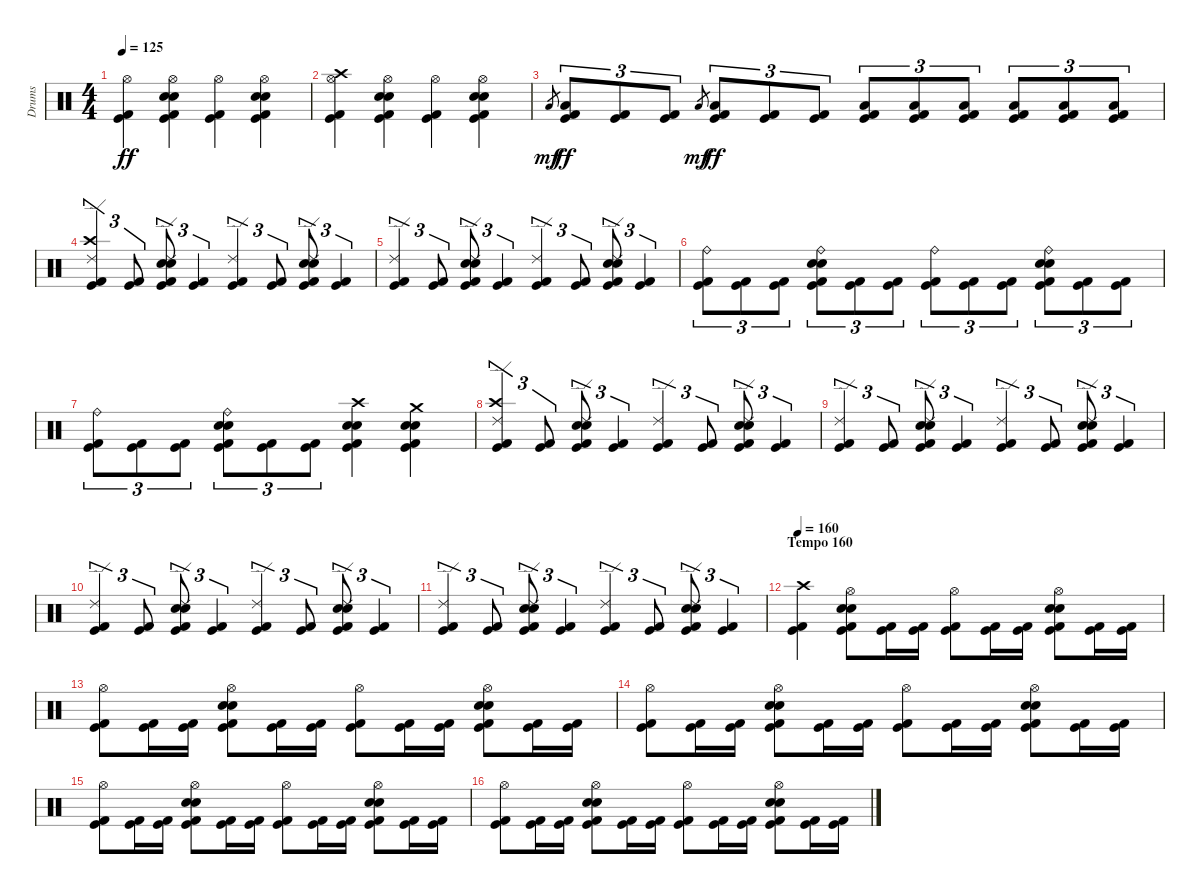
\track ("Drums" "Drums") {instrument percussion}
\staff {score}
\articulation defaults
\ts (4 4)
\tempo 125
\clef neutral
\ks c
("Hi-Hat (open)" "Kick (hit) 2" "Kick (hit)").4{dy ff} ("Hi-Hat (open)" "Snare (hit) 2" "Electric Snare (hit)" "Kick (hit) 2" "Kick (hit)").4 ("Hi-Hat (open)" "Kick (hit) 2" "Kick (hit)").4 ("Hi-Hat (open)" "Snare (hit) 2" "Electric Snare (hit)" "Kick (hit) 2" "Kick (hit)").4 |
("Hi-Hat (open)" "Crash high (hit)" "Kick (hit) 2" "Kick (hit)").4 ("Hi-Hat (open)" "Snare (hit) 2" "Electric Snare (hit)" "Kick (hit) 2" "Kick (hit)").4 ("Hi-Hat (open)" "Kick (hit) 2" "Kick (hit)").4 ("Hi-Hat (open)" "Snare (hit) 2" "Electric Snare (hit)" "Kick (hit) 2" "Kick (hit)").4 |
"Low Tom (hit)".8{gr dy mf} ("Low Tom (hit)" "Kick (hit) 2" "Kick (hit)").8{tu (3 2) dy ff} ("Kick (hit) 2" "Kick (hit)").8{tu (3 2)} ("Kick (hit) 2" "Kick (hit)").8{tu (3 2)} "Low Tom (hit)".8{gr dy mf} ("Low Tom (hit)" "Kick (hit) 2" "Kick (hit)").8{tu (3 2) dy ff} ("Kick (hit) 2" "Kick (hit)").8{tu (3 2)} ("Kick (hit) 2" "Kick (hit)").8{tu (3 2)} ("Low Tom (hit)" "Kick (hit) 2" "Kick (hit)").8{tu (3 2)} ("Low Tom (hit)" "Kick (hit) 2" "Kick (hit)").8{tu (3 2)} ("Low Tom (hit)" "Kick (hit) 2" "Kick (hit)").8{tu (3 2)} ("Low Tom (hit)" "Kick (hit) 2" "Kick (hit)").8{tu (3 2)} ("Low Tom (hit)" "Kick (hit) 2" "Kick (hit)").8{tu (3 2)} ("Low Tom (hit)" "Kick (hit) 2" "Kick (hit)").8{tu (3 2)} |
("Ride (edge) 2" "Crash high (hit)" "Kick (hit) 2" "Kick (hit)").4{tu (3 2)} ("Kick (hit) 2" "Kick (hit)").8{tu (3 2)} ("Ride (edge) 2" "Snare (hit) 2" "Electric Snare (hit)" "Kick (hit) 2" "Kick (hit)").8{tu (3 2)} ("Kick (hit) 2" "Kick (hit)").4{tu (3 2)} ("Ride (edge) 2" "Kick (hit) 2" "Kick (hit)").4{tu (3 2)} ("Kick (hit) 2" "Kick (hit)").8{tu (3 2)} ("Ride (edge) 2" "Snare (hit) 2" "Electric Snare (hit)" "Kick (hit) 2" "Kick (hit)").8{tu (3 2)} ("Kick (hit) 2" "Kick (hit)").4{tu (3 2)} |
("Ride (edge) 2" "Kick (hit) 2" "Kick (hit)").4{tu (3 2)} ("Kick (hit) 2" "Kick (hit)").8{tu (3 2)} ("Ride (edge) 2" "Snare (hit) 2" "Electric Snare (hit)" "Kick (hit) 2" "Kick (hit)").8{tu (3 2)} ("Kick (hit) 2" "Kick (hit)").4{tu (3 2)} ("Ride (edge) 2" "Kick (hit) 2" "Kick (hit)").4{tu (3 2)} ("Kick (hit) 2" "Kick (hit)").8{tu (3 2)} ("Ride (edge) 2" "Snare (hit) 2" "Electric Snare (hit)" "Kick (hit) 2" "Kick (hit)").8{tu (3 2)} ("Kick (hit) 2" "Kick (hit)").4{tu (3 2)} |
("Ride (bell)" "Kick (hit) 2" "Kick (hit)").8{tu (3 2)} ("Kick (hit) 2" "Kick (hit)").8{tu (3 2)} ("Kick (hit) 2" "Kick (hit)").8{tu (3 2)} ("Ride (bell)" "Snare (hit) 2" "Electric Snare (hit)" "Kick (hit) 2" "Kick (hit)").8{tu (3 2)} ("Kick (hit) 2" "Kick (hit)").8{tu (3 2)} ("Kick (hit) 2" "Kick (hit)").8{tu (3 2)} ("Ride (bell)" "Kick (hit) 2" "Kick (hit)").8{tu (3 2)} ("Kick (hit) 2" "Kick (hit)").8{tu (3 2)} ("Kick (hit) 2" "Kick (hit)").8{tu (3 2)} ("Ride (bell)" "Snare (hit) 2" "Electric Snare (hit)" "Kick (hit) 2" "Kick (hit)").8{tu (3 2)} ("Kick (hit) 2" "Kick (hit)").8{tu (3 2)} ("Kick (hit) 2" "Kick (hit)").8{tu (3 2)} |
("Ride (bell)" "Kick (hit) 2" "Kick (hit)").8{tu (3 2)} ("Kick (hit) 2" "Kick (hit)").8{tu (3 2)} ("Kick (hit) 2" "Kick (hit)").8{tu (3 2)} ("Ride (bell)" "Snare (hit) 2" "Electric Snare (hit)" "Kick (hit) 2" "Kick (hit)").8{tu (3 2)} ("Kick (hit) 2" "Kick (hit)").8{tu (3 2)} ("Kick (hit) 2" "Kick (hit)").8{tu (3 2)} ("Crash high (hit)" "Electric Snare (hit)" "Snare (hit) 2" "Kick (hit)" "Kick (hit) 2").4 ("Crash medium (hit)" "Electric Snare (hit)" "Snare (hit) 2" "Kick (hit)" "Kick (hit) 2").4 |
("Ride (edge) 2" "Crash high (hit)" "Kick (hit) 2" "Kick (hit)").4{tu (3 2)} ("Kick (hit) 2" "Kick (hit)").8{tu (3 2)} ("Ride (edge) 2" "Snare (hit) 2" "Electric Snare (hit)" "Kick (hit) 2" "Kick (hit)").8{tu (3 2)} ("Kick (hit) 2" "Kick (hit)").4{tu (3 2)} ("Ride (edge) 2" "Kick (hit) 2" "Kick (hit)").4{tu (3 2)} ("Kick (hit) 2" "Kick (hit)").8{tu (3 2)} ("Ride (edge) 2" "Snare (hit) 2" "Electric Snare (hit)" "Kick (hit) 2" "Kick (hit)").8{tu (3 2)} ("Kick (hit) 2" "Kick (hit)").4{tu (3 2)} |
("Ride (edge) 2" "Kick (hit) 2" "Kick (hit)").4{tu (3 2)} ("Kick (hit) 2" "Kick (hit)").8{tu (3 2)} ("Ride (edge) 2" "Snare (hit) 2" "Electric Snare (hit)" "Kick (hit) 2" "Kick (hit)").8{tu (3 2)} ("Kick (hit) 2" "Kick (hit)").4{tu (3 2)} ("Ride (edge) 2" "Kick (hit) 2" "Kick (hit)").4{tu (3 2)} ("Kick (hit) 2" "Kick (hit)").8{tu (3 2)} ("Ride (edge) 2" "Snare (hit) 2" "Electric Snare (hit)" "Kick (hit) 2" "Kick (hit)").8{tu (3 2)} ("Kick (hit) 2" "Kick (hit)").4{tu (3 2)} |
("Ride (edge) 2" "Kick (hit) 2" "Kick (hit)").4{tu (3 2)} ("Kick (hit) 2" "Kick (hit)").8{tu (3 2)} ("Ride (edge) 2" "Snare (hit) 2" "Electric Snare (hit)" "Kick (hit) 2" "Kick (hit)").8{tu (3 2)} ("Kick (hit) 2" "Kick (hit)").4{tu (3 2)} ("Ride (edge) 2" "Kick (hit) 2" "Kick (hit)").4{tu (3 2)} ("Kick (hit) 2" "Kick (hit)").8{tu (3 2)} ("Ride (edge) 2" "Snare (hit) 2" "Electric Snare (hit)" "Kick (hit) 2" "Kick (hit)").8{tu (3 2)} ("Kick (hit) 2" "Kick (hit)").4{tu (3 2)} |
("Ride (edge) 2" "Kick (hit) 2" "Kick (hit)").4{tu (3 2)} ("Kick (hit) 2" "Kick (hit)").8{tu (3 2)} ("Ride (edge) 2" "Snare (hit) 2" "Electric Snare (hit)" "Kick (hit) 2" "Kick (hit)").8{tu (3 2)} ("Kick (hit) 2" "Kick (hit)").4{tu (3 2)} ("Ride (edge) 2" "Kick (hit) 2" "Kick (hit)").4{tu (3 2)} ("Kick (hit) 2" "Kick (hit)").8{tu (3 2)} ("Ride (edge) 2" "Snare (hit) 2" "Electric Snare (hit)" "Kick (hit) 2" "Kick (hit)").8{tu (3 2)} ("Kick (hit) 2" "Kick (hit)").4{tu (3 2)} |
\section ("" "Tempo 160")
\tempo 160
("Crash high (hit)" "Kick (hit) 2" "Kick (hit)").4 ("Hi-Hat (open)" "Electric Snare (hit)" "Snare (hit) 2" "Kick (hit) 2" "Kick (hit)").8 ("Kick (hit) 2" "Kick (hit)").16 ("Kick (hit) 2" "Kick (hit)").16 ("Hi-Hat (open)" "Kick (hit) 2" "Kick (hit)").8 ("Kick (hit) 2" "Kick (hit)").16 ("Kick (hit) 2" "Kick (hit)").16 ("Hi-Hat (open)" "Electric Snare (hit)" "Snare (hit) 2" "Kick (hit) 2" "Kick (hit)").8 ("Kick (hit) 2" "Kick (hit)").16 ("Kick (hit) 2" "Kick (hit)").16 |
("Hi-Hat (open)" "Kick (hit) 2" "Kick (hit)").8 ("Kick (hit) 2" "Kick (hit)").16 ("Kick (hit) 2" "Kick (hit)").16 ("Hi-Hat (open)" "Electric Snare (hit)" "Snare (hit) 2" "Kick (hit) 2" "Kick (hit)").8 ("Kick (hit) 2" "Kick (hit)").16 ("Kick (hit) 2" "Kick (hit)").16 ("Hi-Hat (open)" "Kick (hit) 2" "Kick (hit)").8 ("Kick (hit) 2" "Kick (hit)").16 ("Kick (hit) 2" "Kick (hit)").16 ("Hi-Hat (open)" "Electric Snare (hit)" "Snare (hit) 2" "Kick (hit) 2" "Kick (hit)").8 ("Kick (hit) 2" "Kick (hit)").16 ("Kick (hit) 2" "Kick (hit)").16 |
("Hi-Hat (open)" "Kick (hit) 2" "Kick (hit)").8 ("Kick (hit) 2" "Kick (hit)").16 ("Kick (hit) 2" "Kick (hit)").16 ("Hi-Hat (open)" "Electric Snare (hit)" "Snare (hit) 2" "Kick (hit) 2" "Kick (hit)").8 ("Kick (hit) 2" "Kick (hit)").16 ("Kick (hit) 2" "Kick (hit)").16 ("Hi-Hat (open)" "Kick (hit) 2" "Kick (hit)").8 ("Kick (hit) 2" "Kick (hit)").16 ("Kick (hit) 2" "Kick (hit)").16 ("Hi-Hat (open)" "Electric Snare (hit)" "Snare (hit) 2" "Kick (hit) 2" "Kick (hit)").8 ("Kick (hit) 2" "Kick (hit)").16 ("Kick (hit) 2" "Kick (hit)").16 |
("Hi-Hat (open)" "Kick (hit) 2" "Kick (hit)").8 ("Kick (hit) 2" "Kick (hit)").16 ("Kick (hit) 2" "Kick (hit)").16 ("Hi-Hat (open)" "Electric Snare (hit)" "Snare (hit) 2" "Kick (hit) 2" "Kick (hit)").8 ("Kick (hit) 2" "Kick (hit)").16 ("Kick (hit) 2" "Kick (hit)").16 ("Hi-Hat (open)" "Kick (hit) 2" "Kick (hit)").8 ("Kick (hit) 2" "Kick (hit)").16 ("Kick (hit) 2" "Kick (hit)").16 ("Hi-Hat (open)" "Electric Snare (hit)" "Snare (hit) 2" "Kick (hit) 2" "Kick (hit)").8 ("Kick (hit) 2" "Kick (hit)").16 ("Kick (hit) 2" "Kick (hit)").16 |
("Hi-Hat (open)" "Kick (hit) 2" "Kick (hit)").8 ("Kick (hit) 2" "Kick (hit)").16 ("Kick (hit) 2" "Kick (hit)").16 ("Hi-Hat (open)" "Electric Snare (hit)" "Snare (hit) 2" "Kick (hit) 2" "Kick (hit)").8 ("Kick (hit) 2" "Kick (hit)").16 ("Kick (hit) 2" "Kick (hit)").16 ("Hi-Hat (open)" "Kick (hit) 2" "Kick (hit)").8 ("Kick (hit) 2" "Kick (hit)").16 ("Kick (hit) 2" "Kick (hit)").16 ("Hi-Hat (open)" "Electric Snare (hit)" "Snare (hit) 2" "Kick (hit) 2" "Kick (hit)").8 ("Kick (hit) 2" "Kick (hit)").16 ("Kick (hit) 2" "Kick (hit)").16
